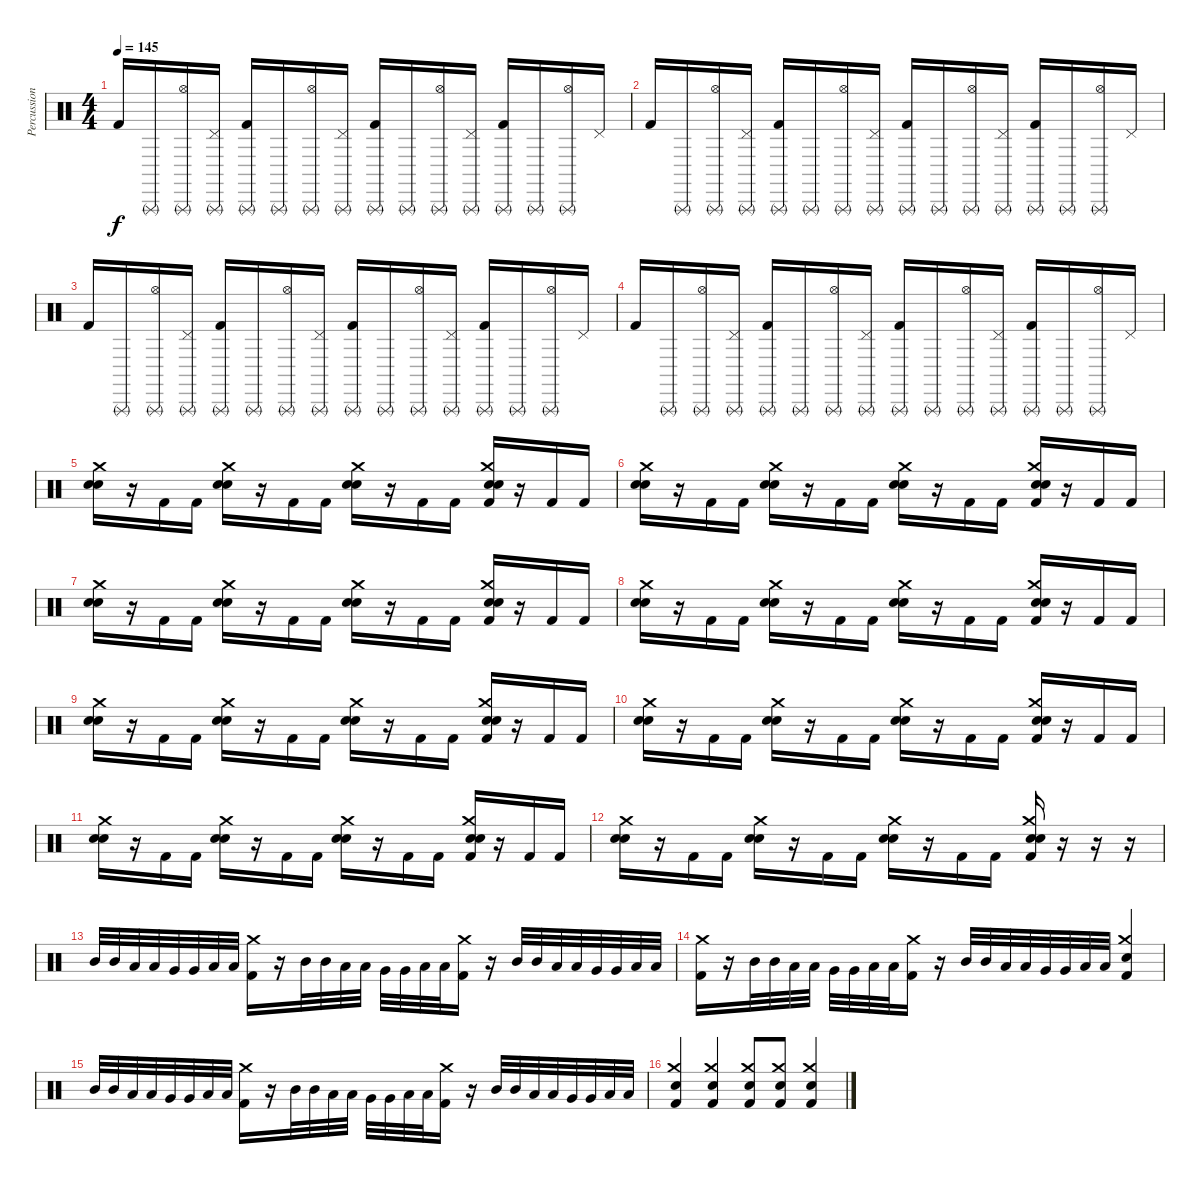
\track ("Percussion" "Percussion") {instrument percussion}
\staff {score}
\articulation defaults
\ts (4 4)
\tempo 145
\clef neutral
\ks c "Kick (hit) 2".16{dy f} "Triangle (rnute)".16
("Triangle (rnute)" "Hi-Hat (open)").16 ("Triangle (rnute)" "Pedal Hi-Hat (hit)").16 ("Triangle (rnute)" "Kick (hit) 2").16 "Triangle (rnute)".16 ("Triangle (rnute)" "Hi-Hat (open)").16 ("Triangle (rnute)" "Pedal Hi-Hat (hit)").16 ("Triangle (rnute)" "Kick (hit) 2").16 "Triangle (rnute)".16 ("Triangle (rnute)" "Hi-Hat (open)").16 ("Triangle (rnute)" "Pedal Hi-Hat (hit)").16 ("Triangle (rnute)" "Kick (hit) 2").16 "Triangle (rnute)".16 ("Triangle (rnute)" "Hi-Hat (open)").16 "Pedal Hi-Hat (hit)".16 |
"Kick (hit) 2".16 "Triangle (rnute)".16 ("Triangle (rnute)" "Hi-Hat (open)").16 ("Triangle (rnute)" "Pedal Hi-Hat (hit)").16 ("Triangle (rnute)" "Kick (hit) 2").16 "Triangle (rnute)".16 ("Triangle (rnute)" "Hi-Hat (open)").16 ("Triangle (rnute)" "Pedal Hi-Hat (hit)").16 ("Triangle (rnute)" "Kick (hit) 2").16 "Triangle (rnute)".16 ("Triangle (rnute)" "Hi-Hat (open)").16 ("Triangle (rnute)" "Pedal Hi-Hat (hit)").16 ("Triangle (rnute)" "Kick (hit) 2").16 "Triangle (rnute)".16 ("Triangle (rnute)" "Hi-Hat (open)").16 "Pedal Hi-Hat (hit)".16 |
"Kick (hit) 2".16 "Triangle (rnute)".16 ("Triangle (rnute)" "Hi-Hat (open)").16 ("Triangle (rnute)" "Pedal Hi-Hat (hit)").16 ("Triangle (rnute)" "Kick (hit) 2").16 "Triangle (rnute)".16 ("Triangle (rnute)" "Hi-Hat (open)").16 ("Triangle (rnute)" "Pedal Hi-Hat (hit)").16 ("Triangle (rnute)" "Kick (hit) 2").16 "Triangle (rnute)".16 ("Triangle (rnute)" "Hi-Hat (open)").16 ("Triangle (rnute)" "Pedal Hi-Hat (hit)").16 ("Triangle (rnute)" "Kick (hit) 2").16 "Triangle (rnute)".16 ("Triangle (rnute)" "Hi-Hat (open)").16 "Pedal Hi-Hat (hit)".16 |
"Kick (hit) 2".16 "Triangle (rnute)".16 ("Triangle (rnute)" "Hi-Hat (open)").16 ("Triangle (rnute)" "Pedal Hi-Hat (hit)").16 ("Triangle (rnute)" "Kick (hit) 2").16 "Triangle (rnute)".16 ("Triangle (rnute)" "Hi-Hat (open)").16 ("Triangle (rnute)" "Pedal Hi-Hat (hit)").16 ("Triangle (rnute)" "Kick (hit) 2").16 "Triangle (rnute)".16 ("Triangle (rnute)" "Hi-Hat (open)").16 ("Triangle (rnute)" "Pedal Hi-Hat (hit)").16 ("Triangle (rnute)" "Kick (hit) 2").16 "Triangle (rnute)".16 ("Triangle (rnute)" "Hi-Hat (open)").16 "Pedal Hi-Hat (hit)".16 |
("Crash medium (hit)" "Electric Snare (hit)" "Electric Snare (hit)").16 r.16 "Kick (hit) 2".16 "Kick (hit) 2".16 ("Crash medium (hit)" "Electric Snare (hit)" "Electric Snare (hit)").16 r.16 "Kick (hit) 2".16 "Kick (hit) 2".16 ("Crash medium (hit)" "Electric Snare (hit)" "Electric Snare (hit)").16 r.16 "Kick (hit) 2".16 "Kick (hit) 2".16 ("Crash medium (hit)" "Electric Snare (hit)" "Electric Snare (hit)" "Kick (hit) 2").16 r.16 "Kick (hit) 2".16 "Kick (hit) 2".16 |
("Crash medium (hit)" "Electric Snare (hit)" "Electric Snare (hit)").16 r.16 "Kick (hit) 2".16 "Kick (hit) 2".16 ("Crash medium (hit)" "Electric Snare (hit)" "Electric Snare (hit)").16 r.16 "Kick (hit) 2".16 "Kick (hit) 2".16 ("Crash medium (hit)" "Electric Snare (hit)" "Electric Snare (hit)").16 r.16 "Kick (hit) 2".16 "Kick (hit) 2".16 ("Crash medium (hit)" "Electric Snare (hit)" "Electric Snare (hit)" "Kick (hit) 2").16 r.16 "Kick (hit) 2".16 "Kick (hit) 2".16 |
("Crash medium (hit)" "Electric Snare (hit)" "Electric Snare (hit)").16 r.16 "Kick (hit) 2".16 "Kick (hit) 2".16 ("Crash medium (hit)" "Electric Snare (hit)" "Electric Snare (hit)").16 r.16 "Kick (hit) 2".16 "Kick (hit) 2".16 ("Crash medium (hit)" "Electric Snare (hit)" "Electric Snare (hit)").16 r.16 "Kick (hit) 2".16 "Kick (hit) 2".16 ("Crash medium (hit)" "Electric Snare (hit)" "Electric Snare (hit)" "Kick (hit) 2").16 r.16 "Kick (hit) 2".16 "Kick (hit) 2".16 |
("Crash medium (hit)" "Electric Snare (hit)" "Electric Snare (hit)").16 r.16 "Kick (hit) 2".16 "Kick (hit) 2".16 ("Crash medium (hit)" "Electric Snare (hit)" "Electric Snare (hit)").16 r.16 "Kick (hit) 2".16 "Kick (hit) 2".16 ("Crash medium (hit)" "Electric Snare (hit)" "Electric Snare (hit)").16 r.16 "Kick (hit) 2".16 "Kick (hit) 2".16 ("Crash medium (hit)" "Electric Snare (hit)" "Electric Snare (hit)" "Kick (hit) 2").16 r.16 "Kick (hit) 2".16 "Kick (hit) 2".16 |
("Crash medium (hit)" "Electric Snare (hit)" "Electric Snare (hit)").16 r.16 "Kick (hit) 2".16 "Kick (hit) 2".16 ("Crash medium (hit)" "Electric Snare (hit)" "Electric Snare (hit)").16 r.16 "Kick (hit) 2".16 "Kick (hit) 2".16 ("Crash medium (hit)" "Electric Snare (hit)" "Electric Snare (hit)").16 r.16 "Kick (hit) 2".16 "Kick (hit) 2".16 ("Crash medium (hit)" "Electric Snare (hit)" "Electric Snare (hit)" "Kick (hit) 2").16 r.16 "Kick (hit) 2".16 "Kick (hit) 2".16 |
("Crash medium (hit)" "Electric Snare (hit)" "Electric Snare (hit)").16 r.16 "Kick (hit) 2".16 "Kick (hit) 2".16 ("Crash medium (hit)" "Electric Snare (hit)" "Electric Snare (hit)").16 r.16 "Kick (hit) 2".16 "Kick (hit) 2".16 ("Crash medium (hit)" "Electric Snare (hit)" "Electric Snare (hit)").16 r.16 "Kick (hit) 2".16 "Kick (hit) 2".16 ("Crash medium (hit)" "Electric Snare (hit)" "Electric Snare (hit)" "Kick (hit) 2").16 r.16 "Kick (hit) 2".16 "Kick (hit) 2".16 |
("Crash medium (hit)" "Electric Snare (hit)" "Electric Snare (hit)").16 r.16 "Kick (hit) 2".16 "Kick (hit) 2".16 ("Crash medium (hit)" "Electric Snare (hit)" "Electric Snare (hit)").16 r.16 "Kick (hit) 2".16 "Kick (hit) 2".16 ("Crash medium (hit)" "Electric Snare (hit)" "Electric Snare (hit)").16 r.16 "Kick (hit) 2".16 "Kick (hit) 2".16 ("Crash medium (hit)" "Electric Snare (hit)" "Electric Snare (hit)" "Kick (hit) 2").16 r.16 "Kick (hit) 2".16 "Kick (hit) 2".16 |
("Crash medium (hit)" "Electric Snare (hit)" "Electric Snare (hit)").16 r.16 "Kick (hit) 2".16 "Kick (hit) 2".16 ("Crash medium (hit)" "Electric Snare (hit)" "Electric Snare (hit)").16 r.16 "Kick (hit) 2".16 "Kick (hit) 2".16 ("Crash medium (hit)" "Electric Snare (hit)" "Electric Snare (hit)").16 r.16 "Kick (hit) 2".16 "Kick (hit) 2".16 ("Crash medium (hit)" "Electric Snare (hit)" "Electric Snare (hit)" "Kick (hit) 2").16 r.16 r.16 r.16 |
"Mid Tom (hit)".32 "Mid Tom (hit)".32 "Low Tom (hit)".32 "Low Tom (hit)".32 "Very Low Tom (hit)".32 "Very Low Tom (hit)".32 "Low Floor Tom (hit)".32 "Low Floor Tom (hit)".32 ("Crash medium (hit)" "Kick (hit) 2").16 r.16 "Mid Tom (hit)".32 "Mid Tom (hit)".32 "Low Tom (hit)".32 "Low Tom (hit)".32 "Very Low Tom (hit)".32 "Very Low Tom (hit)".32 "Low Floor Tom (hit)".32 "Low Floor Tom (hit)".32 ("Crash medium (hit)" "Kick (hit) 2").16 r.16 "Mid Tom (hit)".32 "Mid Tom (hit)".32 "Low Tom (hit)".32 "Low Tom (hit)".32 "Very Low Tom (hit)".32 "Very Low Tom (hit)".32 "Low Floor Tom (hit)".32 "Low Floor Tom (hit)".32 |
("Crash medium (hit)" "Kick (hit) 2").16 r.16 "Mid Tom (hit)".32 "Mid Tom (hit)".32 "Low Tom (hit)".32 "Low Tom (hit)".32 "Very Low Tom (hit)".32 "Very Low Tom (hit)".32 "Low Floor Tom (hit)".32 "Low Floor Tom (hit)".32 ("Crash medium (hit)" "Kick (hit) 2").16 r.16 "Mid Tom (hit)".32 "Mid Tom (hit)".32 "Low Tom (hit)".32 "Low Tom (hit)".32 "Very Low Tom (hit)".32 "Very Low Tom (hit)".32 "Low Floor Tom (hit)".32 "Low Floor Tom (hit)".32 ("Crash medium (hit)" "Electric Snare (hit)" "Kick (hit) 2").4 |
"Mid Tom (hit)".32 "Mid Tom (hit)".32 "Low Tom (hit)".32 "Low Tom (hit)".32 "Very Low Tom (hit)".32 "Very Low Tom (hit)".32 "Low Floor Tom (hit)".32 "Low Floor Tom (hit)".32 ("Crash medium (hit)" "Kick (hit) 2").16 r.16 "Mid Tom (hit)".32 "Mid Tom (hit)".32 "Low Tom (hit)".32 "Low Tom (hit)".32 "Very Low Tom (hit)".32 "Very Low Tom (hit)".32 "Low Floor Tom (hit)".32 "Low Floor Tom (hit)".32 ("Crash medium (hit)" "Kick (hit) 2").16 r.16 "Mid Tom (hit)".32 "Mid Tom (hit)".32 "Low Tom (hit)".32 "Low Tom (hit)".32 "Very Low Tom (hit)".32 "Very Low Tom (hit)".32 "Low Floor Tom (hit)".32 "Low Floor Tom (hit)".32 |
("Crash medium (hit)" "Electric Snare (hit)" "Kick (hit) 2").4 ("Crash medium (hit)" "Electric Snare (hit)" "Kick (hit) 2").4 ("Crash medium (hit)" "Electric Snare (hit)" "Kick (hit) 2").8 ("Crash medium (hit)" "Electric Snare (hit)" "Kick (hit) 2").8 ("Crash medium (hit)" "Electric Snare (hit)" "Kick (hit) 2").4
